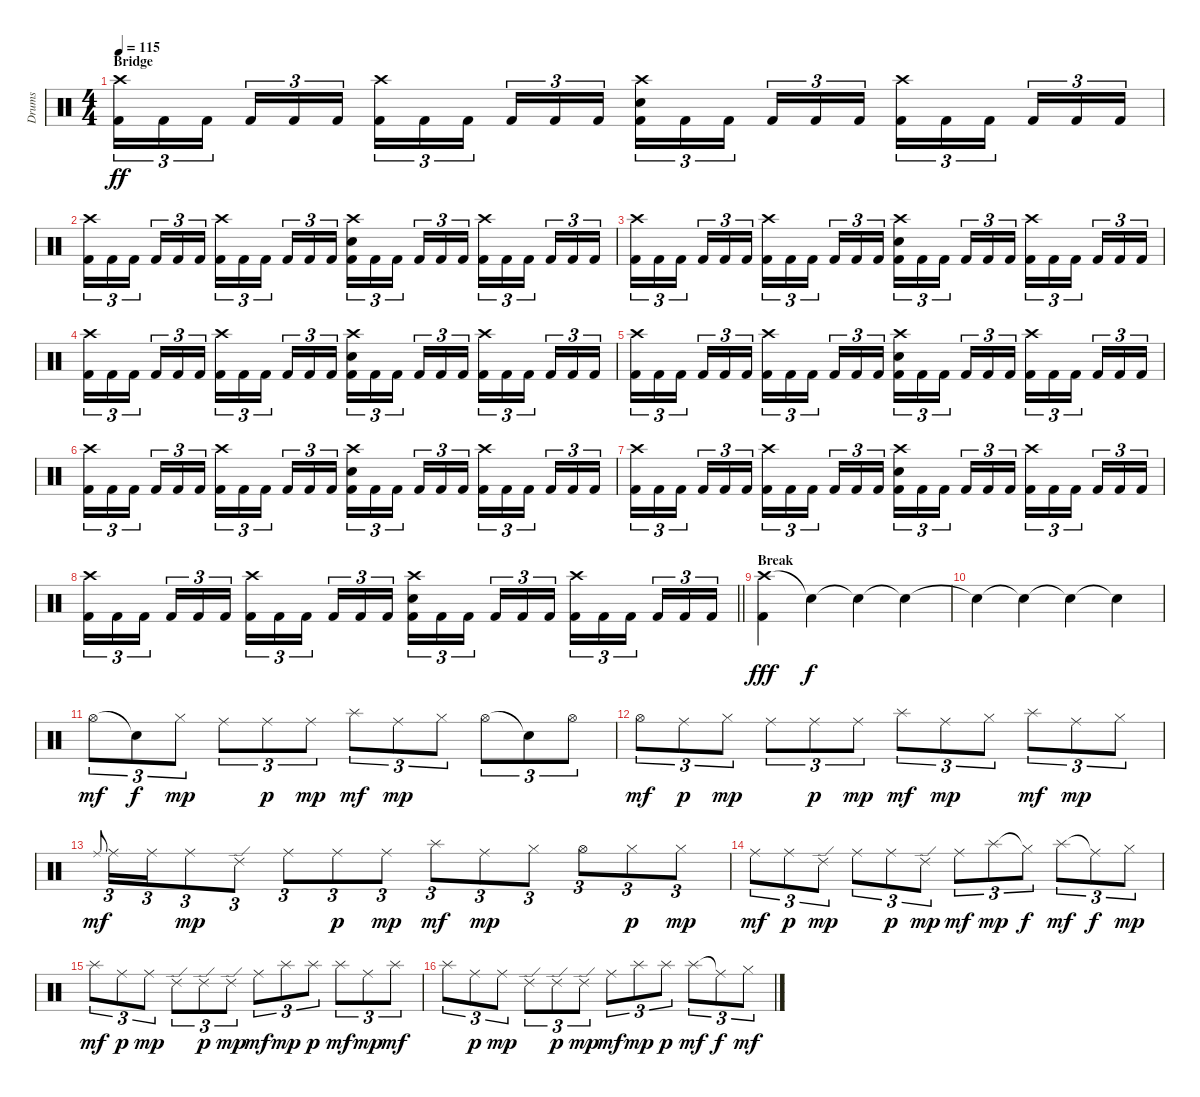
\track ("Drums" "Drums") {instrument percussion}
\staff {score}
\articulation defaults
\ts (4 4)
\section ("" "Bridge")
\tempo 115
\clef neutral
\ks c
("Crash high (hit)" "Kick (hit) 2").16{tu (3 2) dy ff} "Kick (hit) 2".16{tu (3 2)} "Kick (hit) 2".16{tu (3 2) beam splitsecondary} "Kick (hit) 2".16{tu (3 2)} "Kick (hit) 2".16{tu (3 2)} "Kick (hit) 2".16{tu (3 2)} ("Crash high (hit)" "Kick (hit) 2").16{tu (3 2)} "Kick (hit) 2".16{tu (3 2)} "Kick (hit) 2".16{tu (3 2) beam splitsecondary} "Kick (hit) 2".16{tu (3 2)} "Kick (hit) 2".16{tu (3 2)} "Kick (hit) 2".16{tu (3 2)} ("Crash high (hit)" "Electric Snare (hit)" "Kick (hit) 2").16{tu (3 2)} "Kick (hit) 2".16{tu (3 2)} "Kick (hit) 2".16{tu (3 2) beam splitsecondary} "Kick (hit) 2".16{tu (3 2)} "Kick (hit) 2".16{tu (3 2)} "Kick (hit) 2".16{tu (3 2)} ("Crash high (hit)" "Kick (hit) 2").16{tu (3 2)} "Kick (hit) 2".16{tu (3 2)} "Kick (hit) 2".16{tu (3 2) beam splitsecondary} "Kick (hit) 2".16{tu (3 2)} "Kick (hit) 2".16{tu (3 2)} "Kick (hit) 2".16{tu (3 2)} |
("Crash high (hit)" "Kick (hit) 2").16{tu (3 2)} "Kick (hit) 2".16{tu (3 2)} "Kick (hit) 2".16{tu (3 2) beam splitsecondary} "Kick (hit) 2".16{tu (3 2)} "Kick (hit) 2".16{tu (3 2)} "Kick (hit) 2".16{tu (3 2)} ("Crash high (hit)" "Kick (hit) 2").16{tu (3 2)} "Kick (hit) 2".16{tu (3 2)} "Kick (hit) 2".16{tu (3 2) beam splitsecondary} "Kick (hit) 2".16{tu (3 2)} "Kick (hit) 2".16{tu (3 2)} "Kick (hit) 2".16{tu (3 2)} ("Crash high (hit)" "Electric Snare (hit)" "Kick (hit) 2").16{tu (3 2)} "Kick (hit) 2".16{tu (3 2)} "Kick (hit) 2".16{tu (3 2) beam splitsecondary} "Kick (hit) 2".16{tu (3 2)} "Kick (hit) 2".16{tu (3 2)} "Kick (hit) 2".16{tu (3 2)} ("Crash high (hit)" "Kick (hit) 2").16{tu (3 2)} "Kick (hit) 2".16{tu (3 2)} "Kick (hit) 2".16{tu (3 2) beam splitsecondary} "Kick (hit) 2".16{tu (3 2)} "Kick (hit) 2".16{tu (3 2)} "Kick (hit) 2".16{tu (3 2)} |
("Crash high (hit)" "Kick (hit) 2").16{tu (3 2)} "Kick (hit) 2".16{tu (3 2)} "Kick (hit) 2".16{tu (3 2) beam splitsecondary} "Kick (hit) 2".16{tu (3 2)} "Kick (hit) 2".16{tu (3 2)} "Kick (hit) 2".16{tu (3 2)} ("Crash high (hit)" "Kick (hit) 2").16{tu (3 2)} "Kick (hit) 2".16{tu (3 2)} "Kick (hit) 2".16{tu (3 2) beam splitsecondary} "Kick (hit) 2".16{tu (3 2)} "Kick (hit) 2".16{tu (3 2)} "Kick (hit) 2".16{tu (3 2)} ("Crash high (hit)" "Electric Snare (hit)" "Kick (hit) 2").16{tu (3 2)} "Kick (hit) 2".16{tu (3 2)} "Kick (hit) 2".16{tu (3 2) beam splitsecondary} "Kick (hit) 2".16{tu (3 2)} "Kick (hit) 2".16{tu (3 2)} "Kick (hit) 2".16{tu (3 2)} ("Crash high (hit)" "Kick (hit) 2").16{tu (3 2)} "Kick (hit) 2".16{tu (3 2)} "Kick (hit) 2".16{tu (3 2) beam splitsecondary} "Kick (hit) 2".16{tu (3 2)} "Kick (hit) 2".16{tu (3 2)} "Kick (hit) 2".16{tu (3 2)} |
("Crash high (hit)" "Kick (hit) 2").16{tu (3 2)} "Kick (hit) 2".16{tu (3 2)} "Kick (hit) 2".16{tu (3 2) beam splitsecondary} "Kick (hit) 2".16{tu (3 2)} "Kick (hit) 2".16{tu (3 2)} "Kick (hit) 2".16{tu (3 2)} ("Crash high (hit)" "Kick (hit) 2").16{tu (3 2)} "Kick (hit) 2".16{tu (3 2)} "Kick (hit) 2".16{tu (3 2) beam splitsecondary} "Kick (hit) 2".16{tu (3 2)} "Kick (hit) 2".16{tu (3 2)} "Kick (hit) 2".16{tu (3 2)} ("Crash high (hit)" "Electric Snare (hit)" "Kick (hit) 2").16{tu (3 2)} "Kick (hit) 2".16{tu (3 2)} "Kick (hit) 2".16{tu (3 2) beam splitsecondary} "Kick (hit) 2".16{tu (3 2)} "Kick (hit) 2".16{tu (3 2)} "Kick (hit) 2".16{tu (3 2)} ("Crash high (hit)" "Kick (hit) 2").16{tu (3 2)} "Kick (hit) 2".16{tu (3 2)} "Kick (hit) 2".16{tu (3 2) beam splitsecondary} "Kick (hit) 2".16{tu (3 2)} "Kick (hit) 2".16{tu (3 2)} "Kick (hit) 2".16{tu (3 2)} |
("Crash high (hit)" "Kick (hit) 2").16{tu (3 2)} "Kick (hit) 2".16{tu (3 2)} "Kick (hit) 2".16{tu (3 2) beam splitsecondary} "Kick (hit) 2".16{tu (3 2)} "Kick (hit) 2".16{tu (3 2)} "Kick (hit) 2".16{tu (3 2)} ("Crash high (hit)" "Kick (hit) 2").16{tu (3 2)} "Kick (hit) 2".16{tu (3 2)} "Kick (hit) 2".16{tu (3 2) beam splitsecondary} "Kick (hit) 2".16{tu (3 2)} "Kick (hit) 2".16{tu (3 2)} "Kick (hit) 2".16{tu (3 2)} ("Crash high (hit)" "Electric Snare (hit)" "Kick (hit) 2").16{tu (3 2)} "Kick (hit) 2".16{tu (3 2)} "Kick (hit) 2".16{tu (3 2) beam splitsecondary} "Kick (hit) 2".16{tu (3 2)} "Kick (hit) 2".16{tu (3 2)} "Kick (hit) 2".16{tu (3 2)} ("Crash high (hit)" "Kick (hit) 2").16{tu (3 2)} "Kick (hit) 2".16{tu (3 2)} "Kick (hit) 2".16{tu (3 2) beam splitsecondary} "Kick (hit) 2".16{tu (3 2)} "Kick (hit) 2".16{tu (3 2)} "Kick (hit) 2".16{tu (3 2)} |
("Crash high (hit)" "Kick (hit) 2").16{tu (3 2)} "Kick (hit) 2".16{tu (3 2)} "Kick (hit) 2".16{tu (3 2) beam splitsecondary} "Kick (hit) 2".16{tu (3 2)} "Kick (hit) 2".16{tu (3 2)} "Kick (hit) 2".16{tu (3 2)} ("Crash high (hit)" "Kick (hit) 2").16{tu (3 2)} "Kick (hit) 2".16{tu (3 2)} "Kick (hit) 2".16{tu (3 2) beam splitsecondary} "Kick (hit) 2".16{tu (3 2)} "Kick (hit) 2".16{tu (3 2)} "Kick (hit) 2".16{tu (3 2)} ("Crash high (hit)" "Electric Snare (hit)" "Kick (hit) 2").16{tu (3 2)} "Kick (hit) 2".16{tu (3 2)} "Kick (hit) 2".16{tu (3 2) beam splitsecondary} "Kick (hit) 2".16{tu (3 2)} "Kick (hit) 2".16{tu (3 2)} "Kick (hit) 2".16{tu (3 2)} ("Crash high (hit)" "Kick (hit) 2").16{tu (3 2)} "Kick (hit) 2".16{tu (3 2)} "Kick (hit) 2".16{tu (3 2) beam splitsecondary} "Kick (hit) 2".16{tu (3 2)} "Kick (hit) 2".16{tu (3 2)} "Kick (hit) 2".16{tu (3 2)} |
("Crash high (hit)" "Kick (hit) 2").16{tu (3 2)} "Kick (hit) 2".16{tu (3 2)} "Kick (hit) 2".16{tu (3 2) beam splitsecondary} "Kick (hit) 2".16{tu (3 2)} "Kick (hit) 2".16{tu (3 2)} "Kick (hit) 2".16{tu (3 2)} ("Crash high (hit)" "Kick (hit) 2").16{tu (3 2)} "Kick (hit) 2".16{tu (3 2)} "Kick (hit) 2".16{tu (3 2) beam splitsecondary} "Kick (hit) 2".16{tu (3 2)} "Kick (hit) 2".16{tu (3 2)} "Kick (hit) 2".16{tu (3 2)} ("Crash high (hit)" "Electric Snare (hit)" "Kick (hit) 2").16{tu (3 2)} "Kick (hit) 2".16{tu (3 2)} "Kick (hit) 2".16{tu (3 2) beam splitsecondary} "Kick (hit) 2".16{tu (3 2)} "Kick (hit) 2".16{tu (3 2)} "Kick (hit) 2".16{tu (3 2)} ("Crash high (hit)" "Kick (hit) 2").16{tu (3 2)} "Kick (hit) 2".16{tu (3 2)} "Kick (hit) 2".16{tu (3 2) beam splitsecondary} "Kick (hit) 2".16{tu (3 2)} "Kick (hit) 2".16{tu (3 2)} "Kick (hit) 2".16{tu (3 2)} |
\barLineRight lightlight
("Crash high (hit)" "Kick (hit) 2").16{tu (3 2)} "Kick (hit) 2".16{tu (3 2)} "Kick (hit) 2".16{tu (3 2) beam splitsecondary} "Kick (hit) 2".16{tu (3 2)} "Kick (hit) 2".16{tu (3 2)} "Kick (hit) 2".16{tu (3 2)} ("Crash high (hit)" "Kick (hit) 2").16{tu (3 2)} "Kick (hit) 2".16{tu (3 2)} "Kick (hit) 2".16{tu (3 2) beam splitsecondary} "Kick (hit) 2".16{tu (3 2)} "Kick (hit) 2".16{tu (3 2)} "Kick (hit) 2".16{tu (3 2)} ("Crash high (hit)" "Electric Snare (hit)" "Kick (hit) 2").16{tu (3 2)} "Kick (hit) 2".16{tu (3 2)} "Kick (hit) 2".16{tu (3 2) beam splitsecondary} "Kick (hit) 2".16{tu (3 2)} "Kick (hit) 2".16{tu (3 2)} "Kick (hit) 2".16{tu (3 2)} ("Crash high (hit)" "Kick (hit) 2").16{tu (3 2)} "Kick (hit) 2".16{tu (3 2)} "Kick (hit) 2".16{tu (3 2) beam splitsecondary} "Kick (hit) 2".16{tu (3 2)} "Kick (hit) 2".16{tu (3 2)} "Kick (hit) 2".16{tu (3 2)} |
\section ("" "Break")
("Crash high (hit)" "Kick (hit) 2").4{dy fff} "Snare (hit)"{t}.4{dy f} "Snare (hit)"{t}.4 "Snare (hit)"{t}.4 |
"Snare (hit)"{t}.4 "Snare (hit)"{t}.4 "Snare (hit)"{t}.4 "Snare (hit)"{t}.4 |
"Hi-Hat (open)".8{tu (3 2) dy mf} "Snare (hit)"{t}.8{tu (3 2) dy f} "Hi-Hat (closed)".8{tu (3 2) dy mp} "Ride (middle)".8{tu (3 2)} "Ride (middle)".8{tu (3 2) dy p} "Ride (middle)".8{tu (3 2) dy mp} "Splash (hit)".8{tu (3 2) dy mf} "Ride (middle)".8{tu (3 2) dy mp} "Hi-Hat (closed)".8{tu (3 2)} "Hi-Hat (open)".8{tu (3 2)} "Snare (hit)"{t}.8{tu (3 2)} "Hi-Hat (open)".8{tu (3 2)} |
"Hi-Hat (open)".8{tu (3 2) dy mf} "Ride (middle)".8{tu (3 2) dy p} "Hi-Hat (closed)".8{tu (3 2) dy mp} "Ride (middle)".8{tu (3 2)} "Ride (middle)".8{tu (3 2) dy p} "Ride (middle)".8{tu (3 2) dy mp} "Splash (hit)".8{tu (3 2) dy mf} "Ride (middle)".8{tu (3 2) dy mp} "Hi-Hat (closed)".8{tu (3 2)} "Splash (hit)".8{tu (3 2) dy mf} "Ride (middle)".8{tu (3 2) dy mp} "Hi-Hat (closed)".8{tu (3 2)} |
"Ride (middle)".8{gr onbeat dy mf} "Ride (middle)".16{tu (3 2)} "Ride (middle)".16{tu (3 2)} "Ride (middle)".8{tu (3 2) dy mp} "Ride (edge) 2".8{tu (3 2)} "Ride (middle)".8{tu (3 2)} "Ride (middle)".8{tu (3 2) dy p} "Ride (middle)".8{tu (3 2) dy mp} "Splash (hit)".8{tu (3 2) dy mf} "Ride (middle)".8{tu (3 2) dy mp} "Hi-Hat (closed)".8{tu (3 2)} "Hi-Hat (open)".8{tu (3 2)} "Hi-Hat (closed)".8{tu (3 2) dy p} "Hi-Hat (closed)".8{tu (3 2) dy mp} |
"Ride (middle)".8{tu (3 2) dy mf} "Ride (middle)".8{tu (3 2) dy p} "Ride (edge) 2".8{tu (3 2) dy mp} "Ride (middle)".8{tu (3 2)} "Ride (middle)".8{tu (3 2) dy p} "Ride (edge) 2".8{tu (3 2) dy mp} "Ride (middle)".8{tu (3 2) dy mf} "Splash (hit)".8{tu (3 2) dy mp} "Hi-Hat (closed)"{t}.8{tu (3 2) dy f} "Splash (hit)".8{tu (3 2) dy mf} "Ride (middle)"{t}.8{tu (3 2) dy f} "Hi-Hat (closed)".8{tu (3 2) dy mp} |
"Splash (hit)".8{tu (3 2) dy mf} "Ride (middle)".8{tu (3 2) dy p} "Ride (middle)".8{tu (3 2) dy mp} "Ride (edge) 2".8{tu (3 2)} "Ride (edge) 2".8{tu (3 2) dy p} "Ride (edge) 2".8{tu (3 2) dy mp} "Ride (middle)".8{tu (3 2) dy mf} "Splash (hit)".8{tu (3 2) dy mp} "Splash (hit)".8{tu (3 2) dy p} "Splash (hit)".8{tu (3 2) dy mf} "Ride (middle)".8{tu (3 2) dy mp} "Splash (hit)".8{tu (3 2) dy mf} |
"Splash (hit)".8{tu (3 2)} "Ride (middle)".8{tu (3 2) dy p} "Ride (middle)".8{tu (3 2) dy mp} "Ride (edge) 2".8{tu (3 2)} "Ride (edge) 2".8{tu (3 2) dy p} "Ride (edge) 2".8{tu (3 2) dy mp} "Ride (middle)".8{tu (3 2) dy mf} "Splash (hit)".8{tu (3 2) dy mp} "Splash (hit)".8{tu (3 2) dy p} "Splash (hit)".8{tu (3 2) dy mf} "Ride (middle)"{t}.8{tu (3 2) dy f} "Hi-Hat (closed)".8{tu (3 2) dy mf}
